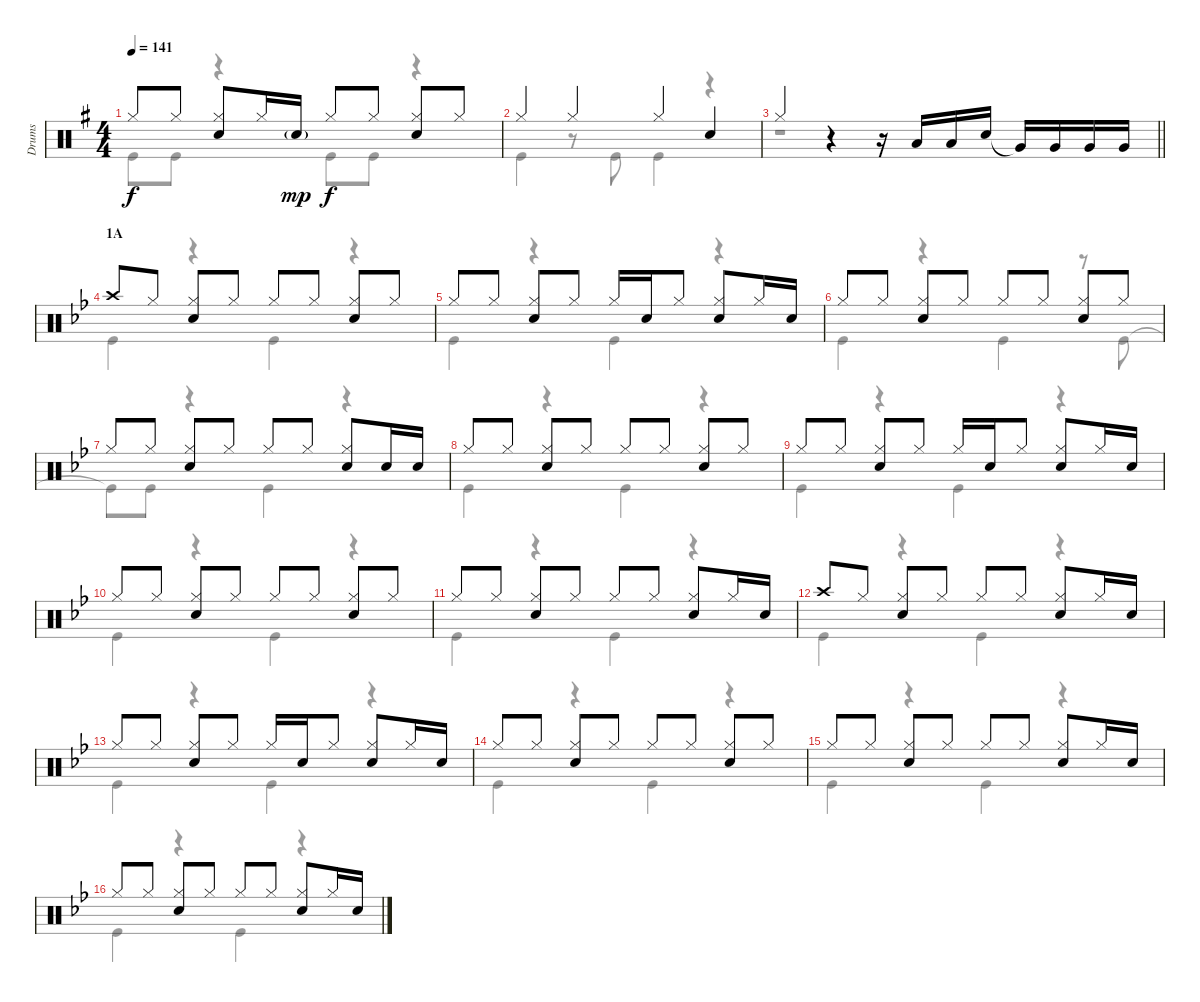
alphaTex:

\track ("Drums" "Drums") {instrument percussion}
\staff {score}
\articulation defaults
\voice
\ts (4 4)
\tempo 141
\clef neutral
\ks g "Hi-Hat (closed)".8{dy f} "Hi-Hat (closed)".8
("Hi-Hat (closed)" "Snare (hit) 2").8 "Hi-Hat (closed)".16 "Snare (hit) 2"{g}.16{dy mp} "Hi-Hat (closed)".8{dy f} "Hi-Hat (closed)".8 ("Hi-Hat (closed)" "Snare (hit) 2").8 "Hi-Hat (closed)".8 |
"Hi-Hat (closed)".4 "Hi-Hat (closed)".4 "Hi-Hat (closed)".4 "Snare (hit) 2".4 |
\barLineRight lightlight "Hi-Hat (closed)".4
r.4 r.16 "Low Tom (hit)".16 "Low Tom (hit)".16 "Snare (hit) 2".16 "Very Low Tom (hit)"{t}.16 "Very Low Tom (hit)".16 "Very Low Tom (hit)".16 "Very Low Tom (hit)".16 |
\section ("" "1A")
\ks bb "Crash high (hit)".8 "Hi-Hat (closed)".8
("Hi-Hat (closed)" "Snare (hit) 2").8 "Hi-Hat (closed)".8 "Hi-Hat (closed)".8 "Hi-Hat (closed)".8 ("Hi-Hat (closed)" "Snare (hit) 2").8 "Hi-Hat (closed)".8 |
"Hi-Hat (closed)".8 "Hi-Hat (closed)".8 ("Hi-Hat (closed)" "Snare (hit) 2").8 "Hi-Hat (closed)".8 "Hi-Hat (closed)".16 "Snare (hit) 2".16 "Hi-Hat (closed)".8 ("Hi-Hat (closed)" "Snare (hit) 2").8 "Hi-Hat (closed)".16 "Snare (hit) 2".16 |
"Hi-Hat (closed)".8 "Hi-Hat (closed)".8 ("Hi-Hat (closed)" "Snare (hit) 2").8 "Hi-Hat (closed)".8 "Hi-Hat (closed)".8 "Hi-Hat (closed)".8 ("Hi-Hat (closed)" "Snare (hit) 2").8 "Hi-Hat (closed)".8 |
"Hi-Hat (closed)".8 "Hi-Hat (closed)".8 ("Hi-Hat (closed)" "Snare (hit) 2").8 "Hi-Hat (closed)".8 "Hi-Hat (closed)".8 "Hi-Hat (closed)".8 ("Hi-Hat (closed)" "Snare (hit) 2").8 "Snare (hit) 2".16 "Snare (hit) 2".16 |
"Hi-Hat (closed)".8 "Hi-Hat (closed)".8 ("Hi-Hat (closed)" "Snare (hit) 2").8 "Hi-Hat (closed)".8 "Hi-Hat (closed)".8 "Hi-Hat (closed)".8 ("Hi-Hat (closed)" "Snare (hit) 2").8 "Hi-Hat (closed)".8 |
"Hi-Hat (closed)".8 "Hi-Hat (closed)".8 ("Hi-Hat (closed)" "Snare (hit) 2").8 "Hi-Hat (closed)".8 "Hi-Hat (closed)".16 "Snare (hit) 2".16 "Hi-Hat (closed)".8 ("Hi-Hat (closed)" "Snare (hit) 2").8 "Hi-Hat (closed)".16 "Snare (hit) 2".16 |
"Hi-Hat (closed)".8 "Hi-Hat (closed)".8 ("Hi-Hat (closed)" "Snare (hit) 2").8 "Hi-Hat (closed)".8 "Hi-Hat (closed)".8 "Hi-Hat (closed)".8 ("Hi-Hat (closed)" "Snare (hit) 2").8 "Hi-Hat (closed)".8 |
"Hi-Hat (closed)".8 "Hi-Hat (closed)".8 ("Hi-Hat (closed)" "Snare (hit) 2").8 "Hi-Hat (closed)".8 "Hi-Hat (closed)".8 "Hi-Hat (closed)".8 ("Hi-Hat (closed)" "Snare (hit) 2").8 "Hi-Hat (closed)".16 "Snare (hit) 2".16 |
"Crash high (hit)".8 "Hi-Hat (closed)".8 ("Hi-Hat (closed)" "Snare (hit) 2").8 "Hi-Hat (closed)".8 "Hi-Hat (closed)".8 "Hi-Hat (closed)".8 ("Hi-Hat (closed)" "Snare (hit) 2").8 "Hi-Hat (closed)".16 "Snare (hit) 2".16 |
"Hi-Hat (closed)".8 "Hi-Hat (closed)".8 ("Hi-Hat (closed)" "Snare (hit) 2").8 "Hi-Hat (closed)".8 "Hi-Hat (closed)".16 "Snare (hit) 2".16 "Hi-Hat (closed)".8 ("Hi-Hat (closed)" "Snare (hit) 2").8 "Hi-Hat (closed)".16 "Snare (hit) 2".16 |
"Hi-Hat (closed)".8 "Hi-Hat (closed)".8 ("Hi-Hat (closed)" "Snare (hit) 2").8 "Hi-Hat (closed)".8 "Hi-Hat (closed)".8 "Hi-Hat (closed)".8 ("Hi-Hat (closed)" "Snare (hit) 2").8 "Hi-Hat (closed)".8 |
"Hi-Hat (closed)".8 "Hi-Hat (closed)".8 ("Hi-Hat (closed)" "Snare (hit) 2").8 "Hi-Hat (closed)".8 "Hi-Hat (closed)".8 "Hi-Hat (closed)".8 ("Hi-Hat (closed)" "Snare (hit) 2").8 "Hi-Hat (closed)".16 "Snare (hit) 2".16 |
"Hi-Hat (closed)".8 "Hi-Hat (closed)".8 ("Hi-Hat (closed)" "Snare (hit) 2").8 "Hi-Hat (closed)".8 "Hi-Hat (closed)".8 "Hi-Hat (closed)".8 ("Hi-Hat (closed)" "Snare (hit) 2").8 "Hi-Hat (closed)".16 "Snare (hit) 2".16
\voice
\clef neutral
\ottava regular
\simile none
\ks g "Kick (hit)".8{dy f} "Kick (hit)".8
r.4 "Kick (hit)".8 "Kick (hit)".8 r.4 |
"Kick (hit)".4 r.8 "Kick (hit)".8 "Kick (hit)".4 r.4 |
\barLineRight lightlight
r.1 |
\ks bb "Kick (hit)".4
r.4 "Kick (hit)".4 r.4 |
"Kick (hit)".4 r.4 "Kick (hit)".4 r.4 |
"Kick (hit)".4 r.4 "Kick (hit)".4 r.8 "Kick (hit)".8 |
"Kick (hit)"{t}.8 "Kick (hit)".8 r.4 "Kick (hit)".4 r.4 |
"Kick (hit)".4 r.4 "Kick (hit)".4 r.4 |
"Kick (hit)".4 r.4 "Kick (hit)".4 r.4 |
"Kick (hit)".4 r.4 "Kick (hit)".4 r.4 |
"Kick (hit)".4 r.4 "Kick (hit)".4 r.4 |
"Kick (hit)".4 r.4 "Kick (hit)".4 r.4 |
"Kick (hit)".4 r.4 "Kick (hit)".4 r.4 |
"Kick (hit)".4 r.4 "Kick (hit)".4 r.4 |
"Kick (hit)".4 r.4 "Kick (hit)".4 r.4 |
"Kick (hit)".4 r.4 "Kick (hit)".4 r.4
